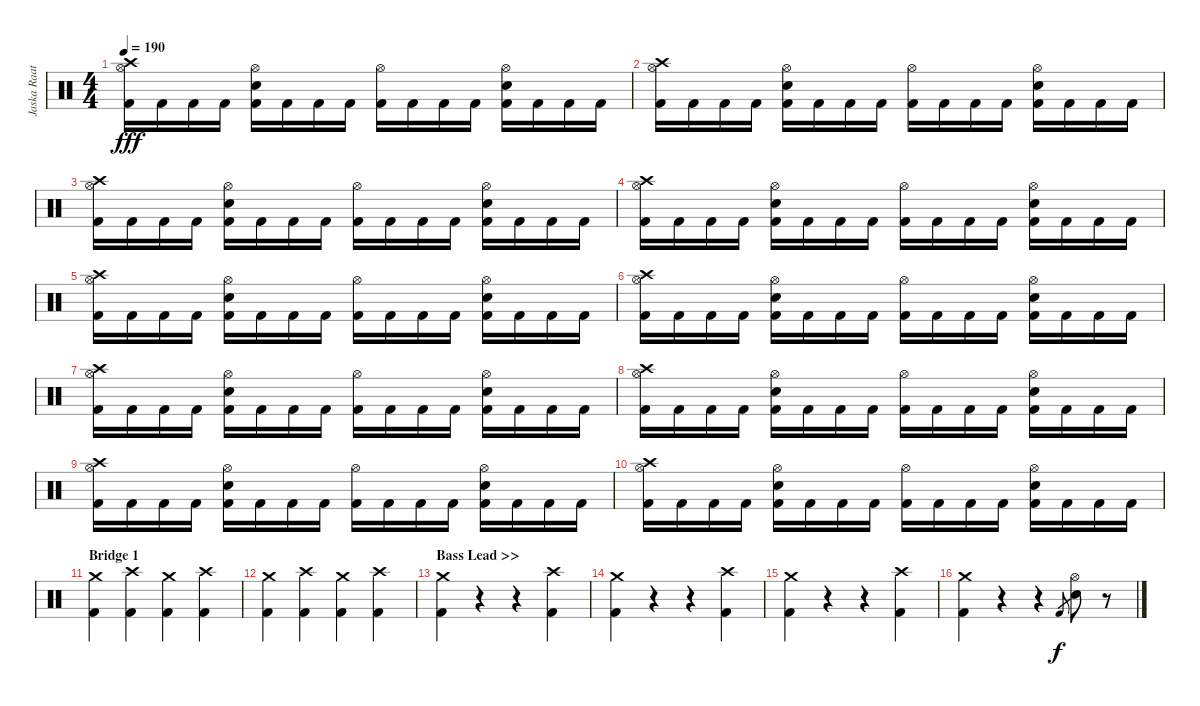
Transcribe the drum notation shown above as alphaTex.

\track ("Jaska Raatikainen (Drums)" "Jaska Raat") {instrument percussion}
\staff {score}
\articulation defaults
\ts (4 4)
\tempo 190
\clef neutral
\ks c
("Hi-Hat (open)" "Crash high (hit)" "Kick (hit) 2").16{dy fff} "Kick (hit) 2".16 "Kick (hit) 2".16 "Kick (hit) 2".16 ("Hi-Hat (open)" "Electric Snare (hit)" "Kick (hit) 2").16 "Kick (hit) 2".16 "Kick (hit) 2".16 "Kick (hit) 2".16 ("Hi-Hat (open)" "Kick (hit) 2").16 "Kick (hit) 2".16 "Kick (hit) 2".16 "Kick (hit) 2".16 ("Hi-Hat (open)" "Electric Snare (hit)" "Kick (hit) 2").16 "Kick (hit) 2".16 "Kick (hit) 2".16 "Kick (hit) 2".16 |
("Hi-Hat (open)" "Crash high (hit)" "Kick (hit) 2").16 "Kick (hit) 2".16 "Kick (hit) 2".16 "Kick (hit) 2".16 ("Hi-Hat (open)" "Electric Snare (hit)" "Kick (hit) 2").16 "Kick (hit) 2".16 "Kick (hit) 2".16 "Kick (hit) 2".16 ("Hi-Hat (open)" "Kick (hit) 2").16 "Kick (hit) 2".16 "Kick (hit) 2".16 "Kick (hit) 2".16 ("Hi-Hat (open)" "Electric Snare (hit)" "Kick (hit) 2").16 "Kick (hit) 2".16 "Kick (hit) 2".16 "Kick (hit) 2".16 |
("Hi-Hat (open)" "Crash high (hit)" "Kick (hit) 2").16 "Kick (hit) 2".16 "Kick (hit) 2".16 "Kick (hit) 2".16 ("Hi-Hat (open)" "Electric Snare (hit)" "Kick (hit) 2").16 "Kick (hit) 2".16 "Kick (hit) 2".16 "Kick (hit) 2".16 ("Hi-Hat (open)" "Kick (hit) 2").16 "Kick (hit) 2".16 "Kick (hit) 2".16 "Kick (hit) 2".16 ("Hi-Hat (open)" "Electric Snare (hit)" "Kick (hit) 2").16 "Kick (hit) 2".16 "Kick (hit) 2".16 "Kick (hit) 2".16 |
("Hi-Hat (open)" "Crash high (hit)" "Kick (hit) 2").16 "Kick (hit) 2".16 "Kick (hit) 2".16 "Kick (hit) 2".16 ("Hi-Hat (open)" "Electric Snare (hit)" "Kick (hit) 2").16 "Kick (hit) 2".16 "Kick (hit) 2".16 "Kick (hit) 2".16 ("Hi-Hat (open)" "Kick (hit) 2").16 "Kick (hit) 2".16 "Kick (hit) 2".16 "Kick (hit) 2".16 ("Hi-Hat (open)" "Electric Snare (hit)" "Kick (hit) 2").16 "Kick (hit) 2".16 "Kick (hit) 2".16 "Kick (hit) 2".16 |
("Hi-Hat (open)" "Crash high (hit)" "Kick (hit) 2").16 "Kick (hit) 2".16 "Kick (hit) 2".16 "Kick (hit) 2".16 ("Hi-Hat (open)" "Electric Snare (hit)" "Kick (hit) 2").16 "Kick (hit) 2".16 "Kick (hit) 2".16 "Kick (hit) 2".16 ("Hi-Hat (open)" "Kick (hit) 2").16 "Kick (hit) 2".16 "Kick (hit) 2".16 "Kick (hit) 2".16 ("Hi-Hat (open)" "Electric Snare (hit)" "Kick (hit) 2").16 "Kick (hit) 2".16 "Kick (hit) 2".16 "Kick (hit) 2".16 |
("Hi-Hat (open)" "Crash high (hit)" "Kick (hit) 2").16 "Kick (hit) 2".16 "Kick (hit) 2".16 "Kick (hit) 2".16 ("Hi-Hat (open)" "Electric Snare (hit)" "Kick (hit) 2").16 "Kick (hit) 2".16 "Kick (hit) 2".16 "Kick (hit) 2".16 ("Hi-Hat (open)" "Kick (hit) 2").16 "Kick (hit) 2".16 "Kick (hit) 2".16 "Kick (hit) 2".16 ("Hi-Hat (open)" "Electric Snare (hit)" "Kick (hit) 2").16 "Kick (hit) 2".16 "Kick (hit) 2".16 "Kick (hit) 2".16 |
("Hi-Hat (open)" "Crash high (hit)" "Kick (hit) 2").16 "Kick (hit) 2".16 "Kick (hit) 2".16 "Kick (hit) 2".16 ("Hi-Hat (open)" "Electric Snare (hit)" "Kick (hit) 2").16 "Kick (hit) 2".16 "Kick (hit) 2".16 "Kick (hit) 2".16 ("Hi-Hat (open)" "Kick (hit) 2").16 "Kick (hit) 2".16 "Kick (hit) 2".16 "Kick (hit) 2".16 ("Hi-Hat (open)" "Electric Snare (hit)" "Kick (hit) 2").16 "Kick (hit) 2".16 "Kick (hit) 2".16 "Kick (hit) 2".16 |
("Hi-Hat (open)" "Crash high (hit)" "Kick (hit) 2").16 "Kick (hit) 2".16 "Kick (hit) 2".16 "Kick (hit) 2".16 ("Hi-Hat (open)" "Electric Snare (hit)" "Kick (hit) 2").16 "Kick (hit) 2".16 "Kick (hit) 2".16 "Kick (hit) 2".16 ("Hi-Hat (open)" "Kick (hit) 2").16 "Kick (hit) 2".16 "Kick (hit) 2".16 "Kick (hit) 2".16 ("Hi-Hat (open)" "Electric Snare (hit)" "Kick (hit) 2").16 "Kick (hit) 2".16 "Kick (hit) 2".16 "Kick (hit) 2".16 |
("Hi-Hat (open)" "Crash high (hit)" "Kick (hit) 2").16 "Kick (hit) 2".16 "Kick (hit) 2".16 "Kick (hit) 2".16 ("Hi-Hat (open)" "Electric Snare (hit)" "Kick (hit) 2").16 "Kick (hit) 2".16 "Kick (hit) 2".16 "Kick (hit) 2".16 ("Hi-Hat (open)" "Kick (hit) 2").16 "Kick (hit) 2".16 "Kick (hit) 2".16 "Kick (hit) 2".16 ("Hi-Hat (open)" "Electric Snare (hit)" "Kick (hit) 2").16 "Kick (hit) 2".16 "Kick (hit) 2".16 "Kick (hit) 2".16 |
("Hi-Hat (open)" "Crash high (hit)" "Kick (hit) 2").16 "Kick (hit) 2".16 "Kick (hit) 2".16 "Kick (hit) 2".16 ("Hi-Hat (open)" "Electric Snare (hit)" "Kick (hit) 2").16 "Kick (hit) 2".16 "Kick (hit) 2".16 "Kick (hit) 2".16 ("Hi-Hat (open)" "Kick (hit) 2").16 "Kick (hit) 2".16 "Kick (hit) 2".16 "Kick (hit) 2".16 ("Hi-Hat (open)" "Electric Snare (hit)" "Kick (hit) 2").16 "Kick (hit) 2".16 "Kick (hit) 2".16 "Kick (hit) 2".16 |
\section ("" "Bridge 1")
("Crash medium (hit)" "Kick (hit) 2").4 ("Crash high (hit)" "Kick (hit) 2").4 ("Crash medium (hit)" "Kick (hit) 2").4 ("Crash high (hit)" "Kick (hit) 2").4 |
("Crash medium (hit)" "Kick (hit) 2").4 ("Crash high (hit)" "Kick (hit) 2").4 ("Crash medium (hit)" "Kick (hit) 2").4 ("Crash high (hit)" "Kick (hit) 2").4 |
\section ("" "Bass Lead >>")
("Crash medium (hit)" "Kick (hit) 2").4 r.4 r.4 ("Crash high (hit)" "Kick (hit) 2").4 |
("Crash medium (hit)" "Kick (hit) 2").4 r.4 r.4 ("Crash high (hit)" "Kick (hit) 2").4 |
("Crash medium (hit)" "Kick (hit) 2").4 r.4 r.4 ("Crash high (hit)" "Kick (hit) 2").4 |
("Crash medium (hit)" "Kick (hit) 2").4 r.4 r.4 "Kick (hit) 2".8{gr dy f} ("Hi-Hat (open)" "Electric Snare (hit)").8 r.8
